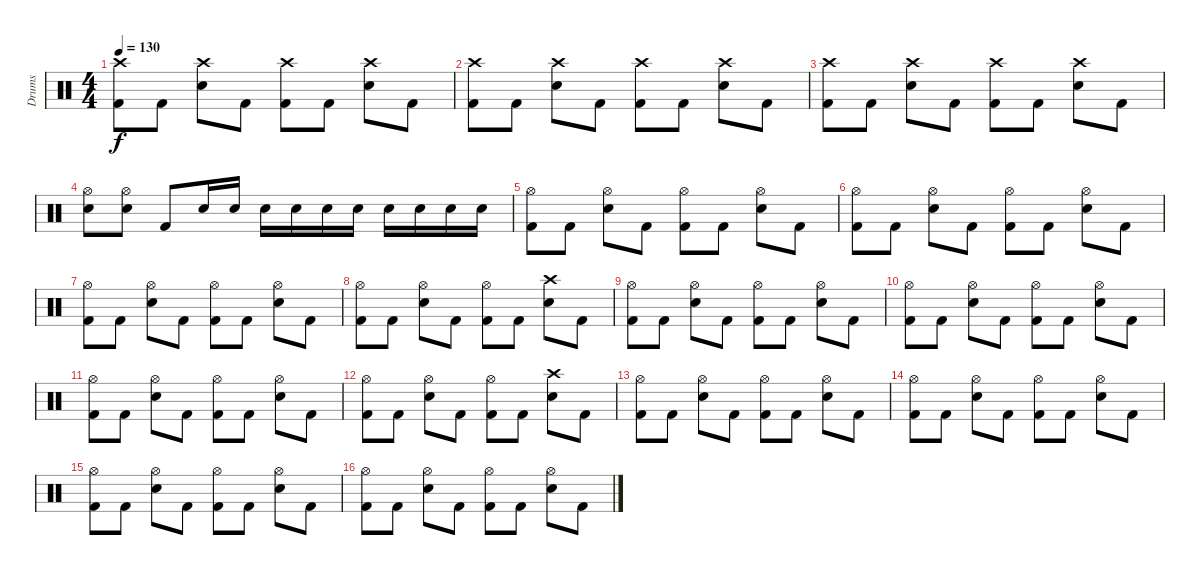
\track ("Drums" "Drums") {instrument percussion}
\staff {score}
\articulation defaults
\ts (4 4)
\tempo 130
\clef neutral
\ks c
("Crash high (hit)" "Kick (hit) 2").8{dy f} "Kick (hit) 2".8 ("Crash high (hit)" "Electric Snare (hit)").8 "Kick (hit) 2".8 ("Crash high (hit)" "Kick (hit) 2").8 "Kick (hit) 2".8 ("Crash high (hit)" "Electric Snare (hit)").8 "Kick (hit) 2".8 |
("Crash high (hit)" "Kick (hit) 2").8 "Kick (hit) 2".8 ("Crash high (hit)" "Electric Snare (hit)").8 "Kick (hit) 2".8 ("Crash high (hit)" "Kick (hit) 2").8 "Kick (hit) 2".8 ("Crash high (hit)" "Electric Snare (hit)").8 "Kick (hit) 2".8 |
("Crash high (hit)" "Kick (hit) 2").8 "Kick (hit) 2".8 ("Crash high (hit)" "Electric Snare (hit)").8 "Kick (hit) 2".8 ("Crash high (hit)" "Kick (hit) 2").8 "Kick (hit) 2".8 ("Crash high (hit)" "Electric Snare (hit)").8 "Kick (hit) 2".8 |
("Hi-Hat (open)" "Electric Snare (hit)").8 ("Hi-Hat (open)" "Electric Snare (hit)").8 "Kick (hit) 2".8 "Snare (hit) 2".16 "Snare (hit) 2".16 "Snare (hit) 2".16 "Snare (hit) 2".16 "Snare (hit) 2".16 "Snare (hit) 2".16 "Snare (hit) 2".16 "Snare (hit) 2".16 "Snare (hit) 2".16 "Snare (hit) 2".16 |
("Hi-Hat (open)" "Kick (hit) 2").8 "Kick (hit) 2".8 ("Hi-Hat (open)" "Electric Snare (hit)").8 "Kick (hit) 2".8 ("Hi-Hat (open)" "Kick (hit) 2").8 "Kick (hit) 2".8 ("Hi-Hat (open)" "Electric Snare (hit)").8 "Kick (hit) 2".8 |
("Hi-Hat (open)" "Kick (hit) 2").8 "Kick (hit) 2".8 ("Hi-Hat (open)" "Electric Snare (hit)").8 "Kick (hit) 2".8 ("Hi-Hat (open)" "Kick (hit) 2").8 "Kick (hit) 2".8 ("Hi-Hat (open)" "Electric Snare (hit)").8 "Kick (hit) 2".8 |
("Hi-Hat (open)" "Kick (hit) 2").8 "Kick (hit) 2".8 ("Hi-Hat (open)" "Electric Snare (hit)").8 "Kick (hit) 2".8 ("Hi-Hat (open)" "Kick (hit) 2").8 "Kick (hit) 2".8 ("Hi-Hat (open)" "Electric Snare (hit)").8 "Kick (hit) 2".8 |
("Hi-Hat (open)" "Kick (hit) 2").8 "Kick (hit) 2".8 ("Hi-Hat (open)" "Electric Snare (hit)").8 "Kick (hit) 2".8 ("Hi-Hat (open)" "Kick (hit) 2").8 "Kick (hit) 2".8 ("Crash high (hit)" "Electric Snare (hit)").8 "Kick (hit) 2".8 |
("Hi-Hat (open)" "Kick (hit) 2").8 "Kick (hit) 2".8 ("Hi-Hat (open)" "Electric Snare (hit)").8 "Kick (hit) 2".8 ("Hi-Hat (open)" "Kick (hit) 2").8 "Kick (hit) 2".8 ("Hi-Hat (open)" "Electric Snare (hit)").8 "Kick (hit) 2".8 |
("Hi-Hat (open)" "Kick (hit) 2").8 "Kick (hit) 2".8 ("Hi-Hat (open)" "Electric Snare (hit)").8 "Kick (hit) 2".8 ("Hi-Hat (open)" "Kick (hit) 2").8 "Kick (hit) 2".8 ("Hi-Hat (open)" "Electric Snare (hit)").8 "Kick (hit) 2".8 |
("Hi-Hat (open)" "Kick (hit) 2").8 "Kick (hit) 2".8 ("Hi-Hat (open)" "Electric Snare (hit)").8 "Kick (hit) 2".8 ("Hi-Hat (open)" "Kick (hit) 2").8 "Kick (hit) 2".8 ("Hi-Hat (open)" "Electric Snare (hit)").8 "Kick (hit) 2".8 |
("Hi-Hat (open)" "Kick (hit) 2").8 "Kick (hit) 2".8 ("Hi-Hat (open)" "Electric Snare (hit)").8 "Kick (hit) 2".8 ("Hi-Hat (open)" "Kick (hit) 2").8 "Kick (hit) 2".8 ("Crash high (hit)" "Electric Snare (hit)").8 "Kick (hit) 2".8 |
("Hi-Hat (open)" "Kick (hit) 2").8 "Kick (hit) 2".8 ("Hi-Hat (open)" "Electric Snare (hit)").8 "Kick (hit) 2".8 ("Hi-Hat (open)" "Kick (hit) 2").8 "Kick (hit) 2".8 ("Hi-Hat (open)" "Electric Snare (hit)").8 "Kick (hit) 2".8 |
("Hi-Hat (open)" "Kick (hit) 2").8 "Kick (hit) 2".8 ("Hi-Hat (open)" "Electric Snare (hit)").8 "Kick (hit) 2".8 ("Hi-Hat (open)" "Kick (hit) 2").8 "Kick (hit) 2".8 ("Hi-Hat (open)" "Electric Snare (hit)").8 "Kick (hit) 2".8 |
("Hi-Hat (open)" "Kick (hit) 2").8 "Kick (hit) 2".8 ("Hi-Hat (open)" "Electric Snare (hit)").8 "Kick (hit) 2".8 ("Hi-Hat (open)" "Kick (hit) 2").8 "Kick (hit) 2".8 ("Hi-Hat (open)" "Electric Snare (hit)").8 "Kick (hit) 2".8 |
("Hi-Hat (open)" "Kick (hit) 2").8 "Kick (hit) 2".8 ("Hi-Hat (open)" "Electric Snare (hit)").8 "Kick (hit) 2".8 ("Hi-Hat (open)" "Kick (hit) 2").8 "Kick (hit) 2".8 ("Hi-Hat (open)" "Electric Snare (hit)").8 "Kick (hit) 2".8
